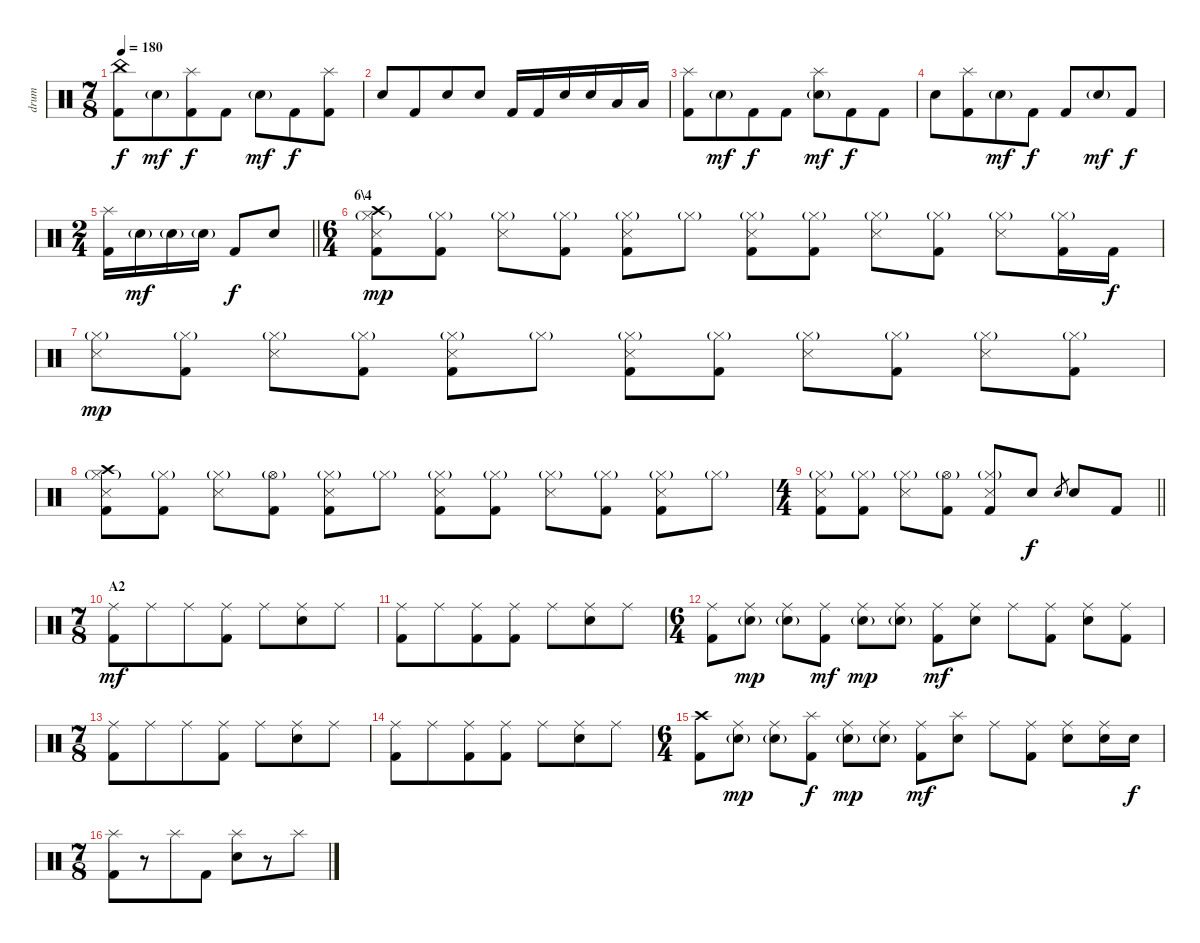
\track ("drum" "drum") {instrument percussion}
\staff {score}
\articulation defaults
\ts (7 8)
\tempo 180
\clef neutral
\ks c
("China (hit)" "Kick (hit) 2").8{dy f} "Electric Snare (hit)"{g}.8{dy mf} ("Splash (hit)" "Kick (hit) 2").8{dy f} "Kick (hit) 2".8 "Electric Snare (hit)"{g}.8{dy mf} "Kick (hit) 2".8{dy f} ("Splash (hit)" "Kick (hit) 2").8 |
"Electric Snare (hit)".8 "Kick (hit) 2".8 "Electric Snare (hit)".8 "Electric Snare (hit)".8 "Kick (hit) 2".16 "Kick (hit) 2".16 "Electric Snare (hit)".16 "Electric Snare (hit)".16 "Low Tom (hit)".16 "Low Tom (hit)".16 |
("Splash (hit)" "Kick (hit) 2").8 "Electric Snare (hit)"{g}.8{dy mf} "Kick (hit) 2".8{dy f} "Kick (hit) 2".8 ("Splash (hit)" "Electric Snare (hit)"{g}).8{dy mf} "Kick (hit) 2".8{dy f} "Kick (hit) 2".8 |
"Electric Snare (hit)".8 ("Splash (hit)" "Kick (hit) 2").8 "Electric Snare (hit)"{g}.8{dy mf} "Kick (hit) 2".8{dy f} "Kick (hit) 2".8 "Electric Snare (hit)"{g}.8{dy mf} "Kick (hit) 2".8{dy f} |
\ts (2 4)
\barLineRight lightlight
("Splash (hit)" "Kick (hit) 2").16 "Electric Snare (hit)"{g}.16{dy mf} "Electric Snare (hit)"{g}.16 "Electric Snare (hit)"{g}.16 "Kick (hit) 2".8{dy f} "Electric Snare (hit)".8 |
\ts (6 4)
\section ("" "6\\4")
("Crash high (hit)" "Hi-Hat (closed)"{g} "Snare (side stick) 3" "Kick (hit) 2").8{dy mp} ("Hi-Hat (closed)"{g} "Kick (hit) 2").8 ("Hi-Hat (closed)"{g} "Snare (side stick) 3").8 ("Hi-Hat (closed)"{g} "Kick (hit) 2").8 ("Hi-Hat (closed)"{g} "Snare (side stick) 3" "Kick (hit) 2").8 "Hi-Hat (closed)"{g}.8 ("Hi-Hat (closed)"{g} "Snare (side stick) 3" "Kick (hit) 2").8 ("Hi-Hat (closed)"{g} "Kick (hit) 2").8 ("Hi-Hat (closed)"{g} "Snare (side stick) 3").8 ("Hi-Hat (closed)"{g} "Kick (hit) 2").8 ("Hi-Hat (closed)"{g} "Snare (side stick) 3").8 ("Hi-Hat (closed)"{g} "Kick (hit) 2").16 "Kick (hit) 2".16{dy f} |
("Hi-Hat (closed)"{g} "Snare (side stick) 3").8{dy mp} ("Hi-Hat (closed)"{g} "Kick (hit) 2").8 ("Hi-Hat (closed)"{g} "Snare (side stick) 3").8 ("Hi-Hat (closed)"{g} "Kick (hit) 2").8 ("Hi-Hat (closed)"{g} "Snare (side stick) 3" "Kick (hit) 2").8 "Hi-Hat (closed)"{g}.8 ("Hi-Hat (closed)"{g} "Snare (side stick) 3" "Kick (hit) 2").8 ("Hi-Hat (closed)"{g} "Kick (hit) 2").8 ("Hi-Hat (closed)"{g} "Snare (side stick) 3").8 ("Hi-Hat (closed)"{g} "Kick (hit) 2").8 ("Hi-Hat (closed)"{g} "Snare (side stick) 3").8 ("Hi-Hat (closed)"{g} "Kick (hit) 2").8 |
("Crash high (hit)" "Hi-Hat (closed)"{g} "Snare (side stick) 3" "Kick (hit) 2").8 ("Hi-Hat (closed)"{g} "Kick (hit) 2").8 ("Hi-Hat (closed)"{g} "Snare (side stick) 3").8 ("Hi-Hat (open)"{g} "Kick (hit) 2").8 ("Hi-Hat (closed)"{g} "Snare (side stick) 3" "Kick (hit) 2").8 "Hi-Hat (closed)"{g}.8 ("Hi-Hat (closed)"{g} "Snare (side stick) 3" "Kick (hit) 2").8 ("Hi-Hat (closed)"{g} "Kick (hit) 2").8 ("Hi-Hat (closed)"{g} "Snare (side stick) 3").8 ("Hi-Hat (closed)"{g} "Kick (hit) 2").8 ("Hi-Hat (closed)"{g} "Snare (side stick) 3" "Kick (hit) 2").8 "Hi-Hat (closed)"{g}.8 |
\ts (4 4)
\barLineRight lightlight
("Hi-Hat (closed)"{g} "Snare (side stick) 3" "Kick (hit) 2").8 ("Hi-Hat (closed)"{g} "Kick (hit) 2").8 ("Hi-Hat (closed)"{g} "Snare (side stick) 3").8 ("Hi-Hat (open)"{g} "Kick (hit) 2").8 ("Hi-Hat (closed)"{g} "Snare (side stick) 3" "Kick (hit) 2").8 "Electric Snare (hit)".8{dy f} "Electric Snare (hit)".8{gr} "Electric Snare (hit)".8 "Kick (hit) 2".8 |
\ts (7 8)
\section ("" "A2")
("Ride (middle)" "Kick (hit) 2").8{dy mf} "Ride (middle)".8 "Ride (middle)".8 ("Ride (middle)" "Kick (hit) 2").8 "Ride (middle)".8 ("Ride (middle)" "Electric Snare (hit)").8 "Ride (middle)".8 |
("Ride (middle)" "Kick (hit) 2").8 "Ride (middle)".8 ("Ride (middle)" "Kick (hit) 2").8 ("Ride (middle)" "Kick (hit) 2").8 "Ride (middle)".8 ("Ride (middle)" "Electric Snare (hit)").8 "Ride (middle)".8 |
\ts (6 4)
("Ride (middle)" "Kick (hit) 2").8 ("Ride (middle)" "Electric Snare (hit)"{g}).8{dy mp} ("Ride (middle)" "Electric Snare (hit)"{g}).8 ("Ride (middle)" "Kick (hit) 2").8{dy mf} ("Ride (middle)" "Electric Snare (hit)"{g}).8{dy mp} ("Ride (middle)" "Electric Snare (hit)"{g}).8 ("Ride (middle)" "Kick (hit) 2").8{dy mf} ("Ride (middle)" "Electric Snare (hit)").8 "Ride (middle)".8 ("Ride (middle)" "Kick (hit) 2").8 ("Ride (middle)" "Electric Snare (hit)").8 ("Ride (middle)" "Kick (hit) 2").8 |
\ts (7 8)
("Ride (middle)" "Kick (hit) 2").8 "Ride (middle)".8 "Ride (middle)".8 ("Ride (middle)" "Kick (hit) 2").8 "Ride (middle)".8 ("Ride (middle)" "Electric Snare (hit)").8 "Ride (middle)".8 |
("Ride (middle)" "Kick (hit) 2").8 "Ride (middle)".8 ("Ride (middle)" "Kick (hit) 2").8 ("Ride (middle)" "Kick (hit) 2").8 "Ride (middle)".8 ("Ride (middle)" "Electric Snare (hit)").8 "Ride (middle)".8 |
\ts (6 4)
("Crash high (hit)" "Kick (hit) 2").8 ("Ride (middle)" "Electric Snare (hit)"{g}).8{dy mp} ("Ride (middle)" "Electric Snare (hit)"{g}).8 ("Splash (hit)" "Kick (hit) 2").8{dy f} ("Ride (middle)" "Electric Snare (hit)"{g}).8{dy mp} ("Ride (middle)" "Electric Snare (hit)"{g}).8 ("Ride (middle)" "Kick (hit) 2").8{dy mf} ("Splash (hit)" "Electric Snare (hit)").8 "Ride (middle)".8 ("Ride (middle)" "Kick (hit) 2").8 ("Ride (middle)" "Electric Snare (hit)").8 ("Ride (middle)" "Electric Snare (hit)").16 "Electric Snare (hit)".16{dy f} |
\ts (7 8)
("Splash (hit)" "Kick (hit) 2").8 r.8 "Splash (hit)".8 "Kick (hit) 2".8 ("Splash (hit)" "Electric Snare (hit)").8 r.8 "Splash (hit)".8
